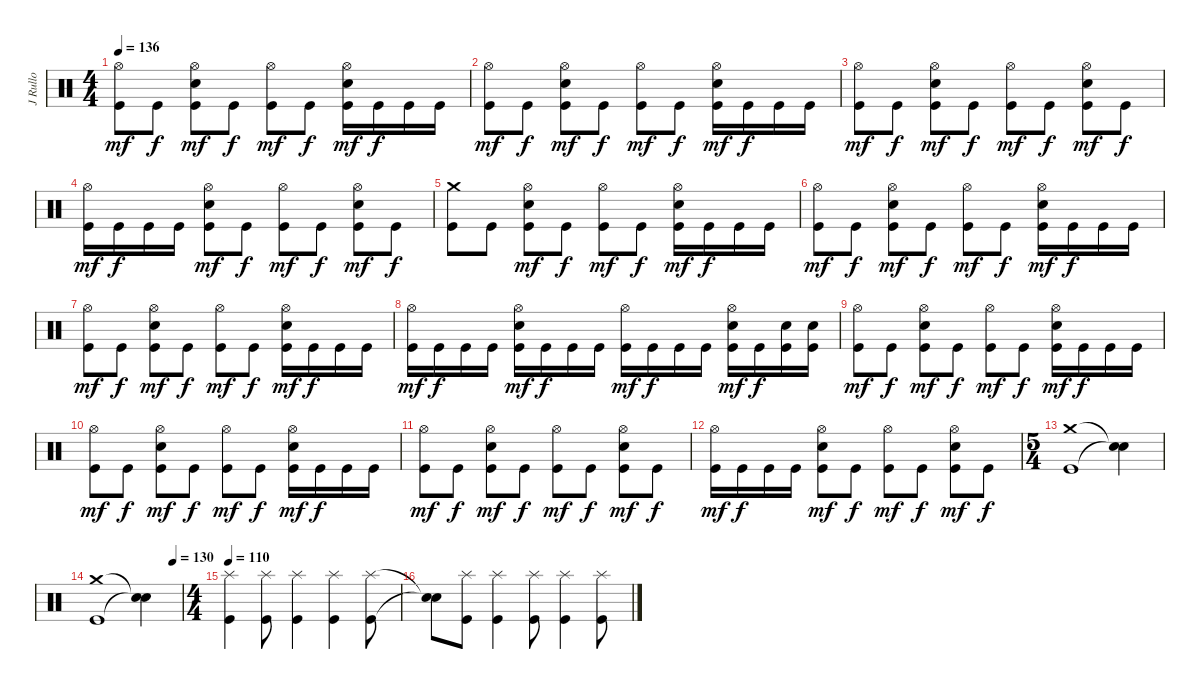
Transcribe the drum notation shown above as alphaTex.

\track ("J Rullo" "J Rullo") {instrument percussion}
\staff {score}
\articulation defaults
\ts (4 4)
\tempo 136
\clef neutral
\ks c
("Hi-Hat (open)" "Kick (hit)").8{dy mf} "Kick (hit)".8{dy f} ("Hi-Hat (open)" "Electric Snare (hit)" "Kick (hit)").8{dy mf} "Kick (hit)".8{dy f} ("Hi-Hat (open)" "Kick (hit)").8{dy mf} "Kick (hit)".8{dy f} ("Hi-Hat (open)" "Electric Snare (hit)" "Kick (hit)").16{dy mf} "Kick (hit)".16{dy f} "Kick (hit)".16 "Kick (hit)".16 |
("Hi-Hat (open)" "Kick (hit)").8{dy mf} "Kick (hit)".8{dy f} ("Hi-Hat (open)" "Electric Snare (hit)" "Kick (hit)").8{dy mf} "Kick (hit)".8{dy f} ("Hi-Hat (open)" "Kick (hit)").8{dy mf} "Kick (hit)".8{dy f} ("Hi-Hat (open)" "Electric Snare (hit)" "Kick (hit)").16{dy mf} "Kick (hit)".16{dy f} "Kick (hit)".16 "Kick (hit)".16 |
("Hi-Hat (open)" "Kick (hit)").8{dy mf} "Kick (hit)".8{dy f} ("Hi-Hat (open)" "Electric Snare (hit)" "Kick (hit)").8{dy mf} "Kick (hit)".8{dy f} ("Hi-Hat (open)" "Kick (hit)").8{dy mf} "Kick (hit)".8{dy f} ("Hi-Hat (open)" "Electric Snare (hit)" "Kick (hit)").8{dy mf} "Kick (hit)".8{dy f} |
("Hi-Hat (open)" "Kick (hit)").16{dy mf} "Kick (hit)".16{dy f} "Kick (hit)".16 "Kick (hit)".16 ("Hi-Hat (open)" "Electric Snare (hit)" "Kick (hit)").8{dy mf} "Kick (hit)".8{dy f} ("Hi-Hat (open)" "Kick (hit)").8{dy mf} "Kick (hit)".8{dy f} ("Hi-Hat (open)" "Electric Snare (hit)" "Kick (hit)").8{dy mf} "Kick (hit)".8{dy f} |
("Crash medium (hit)" "Kick (hit)").8 "Kick (hit)".8 ("Hi-Hat (open)" "Electric Snare (hit)" "Kick (hit)").8{dy mf} "Kick (hit)".8{dy f} ("Hi-Hat (open)" "Kick (hit)").8{dy mf} "Kick (hit)".8{dy f} ("Hi-Hat (open)" "Electric Snare (hit)" "Kick (hit)").16{dy mf} "Kick (hit)".16{dy f} "Kick (hit)".16 "Kick (hit)".16 |
("Hi-Hat (open)" "Kick (hit)").8{dy mf} "Kick (hit)".8{dy f} ("Hi-Hat (open)" "Electric Snare (hit)" "Kick (hit)").8{dy mf} "Kick (hit)".8{dy f} ("Hi-Hat (open)" "Kick (hit)").8{dy mf} "Kick (hit)".8{dy f} ("Hi-Hat (open)" "Electric Snare (hit)" "Kick (hit)").16{dy mf} "Kick (hit)".16{dy f} "Kick (hit)".16 "Kick (hit)".16 |
("Hi-Hat (open)" "Kick (hit)").8{dy mf} "Kick (hit)".8{dy f} ("Hi-Hat (open)" "Electric Snare (hit)" "Kick (hit)").8{dy mf} "Kick (hit)".8{dy f} ("Hi-Hat (open)" "Kick (hit)").8{dy mf} "Kick (hit)".8{dy f} ("Hi-Hat (open)" "Electric Snare (hit)" "Kick (hit)").16{dy mf} "Kick (hit)".16{dy f} "Kick (hit)".16 "Kick (hit)".16 |
("Hi-Hat (open)" "Kick (hit)").16{dy mf} "Kick (hit)".16{dy f} "Kick (hit)".16 "Kick (hit)".16 ("Hi-Hat (open)" "Electric Snare (hit)" "Kick (hit)").16{dy mf} "Kick (hit)".16{dy f} "Kick (hit)".16 "Kick (hit)".16 ("Hi-Hat (open)" "Kick (hit)").16{dy mf} "Kick (hit)".16{dy f} "Kick (hit)".16 "Kick (hit)".16 ("Hi-Hat (open)" "Electric Snare (hit)" "Kick (hit)").16{dy mf} "Kick (hit)".16{dy f} ("Electric Snare (hit)" "Kick (hit)").16 ("Electric Snare (hit)" "Kick (hit)").16 |
("Hi-Hat (open)" "Kick (hit)").8{dy mf} "Kick (hit)".8{dy f} ("Hi-Hat (open)" "Electric Snare (hit)" "Kick (hit)").8{dy mf} "Kick (hit)".8{dy f} ("Hi-Hat (open)" "Kick (hit)").8{dy mf} "Kick (hit)".8{dy f} ("Hi-Hat (open)" "Electric Snare (hit)" "Kick (hit)").16{dy mf} "Kick (hit)".16{dy f} "Kick (hit)".16 "Kick (hit)".16 |
("Hi-Hat (open)" "Kick (hit)").8{dy mf} "Kick (hit)".8{dy f} ("Hi-Hat (open)" "Electric Snare (hit)" "Kick (hit)").8{dy mf} "Kick (hit)".8{dy f} ("Hi-Hat (open)" "Kick (hit)").8{dy mf} "Kick (hit)".8{dy f} ("Hi-Hat (open)" "Electric Snare (hit)" "Kick (hit)").16{dy mf} "Kick (hit)".16{dy f} "Kick (hit)".16 "Kick (hit)".16 |
("Hi-Hat (open)" "Kick (hit)").8{dy mf} "Kick (hit)".8{dy f} ("Hi-Hat (open)" "Electric Snare (hit)" "Kick (hit)").8{dy mf} "Kick (hit)".8{dy f} ("Hi-Hat (open)" "Kick (hit)").8{dy mf} "Kick (hit)".8{dy f} ("Hi-Hat (open)" "Electric Snare (hit)" "Kick (hit)").8{dy mf} "Kick (hit)".8{dy f} |
("Hi-Hat (open)" "Kick (hit)").16{dy mf} "Kick (hit)".16{dy f} "Kick (hit)".16 "Kick (hit)".16 ("Hi-Hat (open)" "Electric Snare (hit)" "Kick (hit)").8{dy mf} "Kick (hit)".8{dy f} ("Hi-Hat (open)" "Kick (hit)").8{dy mf} "Kick (hit)".8{dy f} ("Hi-Hat (open)" "Electric Snare (hit)" "Kick (hit)").8{dy mf} "Kick (hit)".8{dy f} |
\ts (5 4)
("Crash medium (hit)" "Kick (hit)").1 ("Snare (hit)"{t} "Snare (hit)"{t}).4 |
\tempo (130 0.9)
("Crash medium (hit)" "Kick (hit)").1 ("Snare (hit)"{t} "Snare (hit)"{t}).4 |
\ts (4 4)
\tempo 110
("Splash (hit)" "Kick (hit)").4 ("Splash (hit)" "Kick (hit)").8 ("Splash (hit)" "Kick (hit)").4 ("Splash (hit)" "Kick (hit)").4 ("Splash (hit)" "Kick (hit)").8 |
("Snare (hit)"{t} "Snare (hit)"{t}).8 ("Splash (hit)" "Kick (hit)").8 ("Splash (hit)" "Kick (hit)").4 ("Splash (hit)" "Kick (hit)").8 ("Splash (hit)" "Kick (hit)").4 ("Splash (hit)" "Kick (hit)").8
